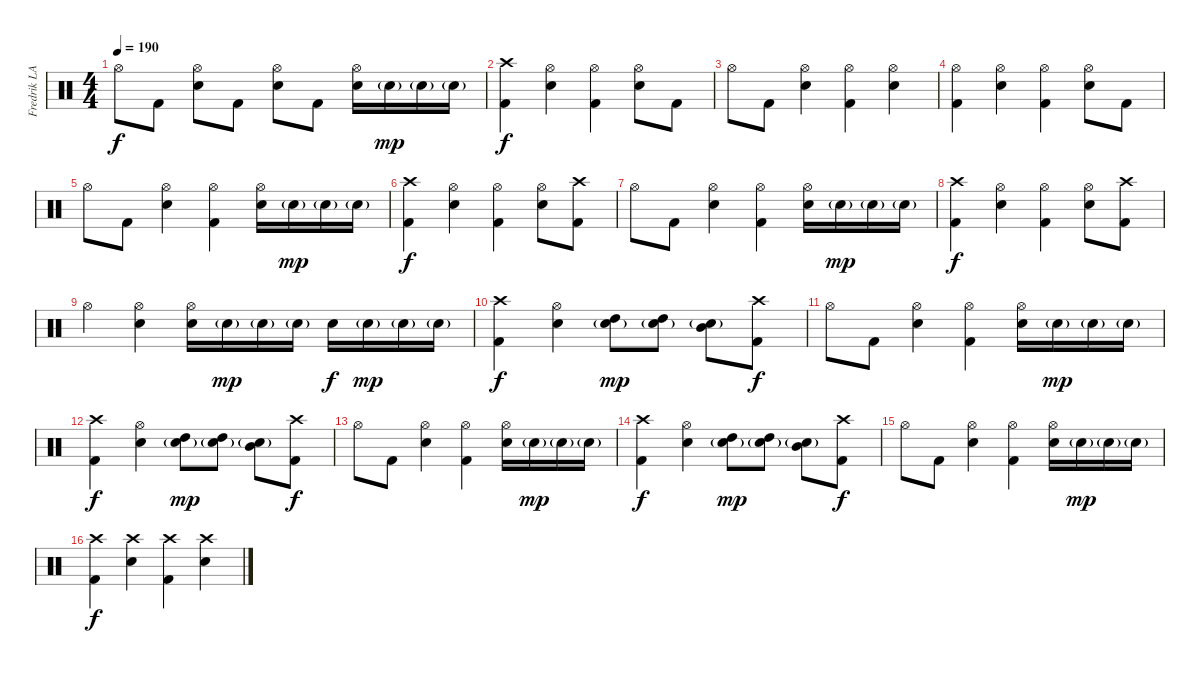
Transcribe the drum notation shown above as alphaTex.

\track ("Fredrik LARZON" "Fredrik LA") {instrument percussion}
\staff {score}
\articulation defaults
\ts (4 4)
\tempo 190
\clef neutral
\ks c "Hi-Hat (open)".8{dy f} "Kick (hit) 2".8
("Hi-Hat (open)" "Electric Snare (hit)").8 "Kick (hit) 2".8 ("Hi-Hat (open)" "Electric Snare (hit)").8 "Kick (hit) 2".8 ("Hi-Hat (open)" "Electric Snare (hit)").16 "Electric Snare (hit)"{g}.16{dy mp} "Electric Snare (hit)"{g}.16 "Electric Snare (hit)"{g}.16 |
("Crash high (hit)" "Kick (hit) 2").4{dy f} ("Hi-Hat (open)" "Electric Snare (hit)").4 ("Hi-Hat (open)" "Kick (hit) 2").4 ("Hi-Hat (open)" "Electric Snare (hit)").8 "Kick (hit) 2".8 |
"Hi-Hat (open)".8 "Kick (hit) 2".8 ("Hi-Hat (open)" "Electric Snare (hit)").4 ("Hi-Hat (open)" "Kick (hit) 2").4 ("Hi-Hat (open)" "Electric Snare (hit)").4 |
("Hi-Hat (open)" "Kick (hit) 2").4 ("Hi-Hat (open)" "Electric Snare (hit)").4 ("Hi-Hat (open)" "Kick (hit) 2").4 ("Hi-Hat (open)" "Electric Snare (hit)").8 "Kick (hit) 2".8 |
"Hi-Hat (open)".8 "Kick (hit) 2".8 ("Hi-Hat (open)" "Electric Snare (hit)").4 ("Hi-Hat (open)" "Kick (hit) 2").4 ("Hi-Hat (open)" "Electric Snare (hit)").16 "Electric Snare (hit)"{g}.16{dy mp} "Electric Snare (hit)"{g}.16 "Electric Snare (hit)"{g}.16 |
("Crash high (hit)" "Kick (hit) 2").4{dy f} ("Hi-Hat (open)" "Electric Snare (hit)").4 ("Hi-Hat (open)" "Kick (hit) 2").4 ("Hi-Hat (open)" "Electric Snare (hit)").8 ("Crash high (hit)" "Kick (hit) 2").8 |
"Hi-Hat (open)".8 "Kick (hit) 2".8 ("Hi-Hat (open)" "Electric Snare (hit)").4 ("Hi-Hat (open)" "Kick (hit) 2").4 ("Hi-Hat (open)" "Electric Snare (hit)").16 "Electric Snare (hit)"{g}.16{dy mp} "Electric Snare (hit)"{g}.16 "Electric Snare (hit)"{g}.16 |
("Crash high (hit)" "Kick (hit) 2").4{dy f} ("Hi-Hat (open)" "Electric Snare (hit)").4 ("Hi-Hat (open)" "Kick (hit) 2").4 ("Hi-Hat (open)" "Electric Snare (hit)").8 ("Crash high (hit)" "Kick (hit) 2").8 |
"Hi-Hat (open)".4 ("Hi-Hat (open)" "Electric Snare (hit)").4 ("Hi-Hat (open)" "Electric Snare (hit)").16 "Electric Snare (hit)"{g}.16{dy mp} "Electric Snare (hit)"{g}.16 "Electric Snare (hit)"{g}.16 "Electric Snare (hit)".16{dy f} "Electric Snare (hit)"{g}.16{dy mp} "Electric Snare (hit)"{g}.16 "Electric Snare (hit)"{g}.16 |
("Crash high (hit)" "Kick (hit) 2").4{dy f} ("Hi-Hat (open)" "Electric Snare (hit)").4 ("Electric Snare (hit)"{g} "High Tom (hit)").8{dy mp} ("Electric Snare (hit)"{g} "High Tom (hit)").8 ("Electric Snare (hit)"{g} "Mid Tom (hit)").8 ("Crash high (hit)" "Kick (hit) 2").8{dy f} |
"Hi-Hat (open)".8 "Kick (hit) 2".8 ("Hi-Hat (open)" "Electric Snare (hit)").4 ("Hi-Hat (open)" "Kick (hit) 2").4 ("Hi-Hat (open)" "Electric Snare (hit)").16 "Electric Snare (hit)"{g}.16{dy mp} "Electric Snare (hit)"{g}.16 "Electric Snare (hit)"{g}.16 |
("Crash high (hit)" "Kick (hit) 2").4{dy f} ("Hi-Hat (open)" "Electric Snare (hit)").4 ("Electric Snare (hit)"{g} "High Tom (hit)").8{dy mp} ("Electric Snare (hit)"{g} "High Tom (hit)").8 ("Electric Snare (hit)"{g} "Mid Tom (hit)").8 ("Crash high (hit)" "Kick (hit) 2").8{dy f} |
"Hi-Hat (open)".8 "Kick (hit) 2".8 ("Hi-Hat (open)" "Electric Snare (hit)").4 ("Hi-Hat (open)" "Kick (hit) 2").4 ("Hi-Hat (open)" "Electric Snare (hit)").16 "Electric Snare (hit)"{g}.16{dy mp} "Electric Snare (hit)"{g}.16 "Electric Snare (hit)"{g}.16 |
("Crash high (hit)" "Kick (hit) 2").4{dy f} ("Hi-Hat (open)" "Electric Snare (hit)").4 ("Electric Snare (hit)"{g} "High Tom (hit)").8{dy mp} ("Electric Snare (hit)"{g} "High Tom (hit)").8 ("Electric Snare (hit)"{g} "Mid Tom (hit)").8 ("Crash high (hit)" "Kick (hit) 2").8{dy f} |
"Hi-Hat (open)".8 "Kick (hit) 2".8 ("Hi-Hat (open)" "Electric Snare (hit)").4 ("Hi-Hat (open)" "Kick (hit) 2").4 ("Hi-Hat (open)" "Electric Snare (hit)").16 "Electric Snare (hit)"{g}.16{dy mp} "Electric Snare (hit)"{g}.16 "Electric Snare (hit)"{g}.16 |
("Crash high (hit)" "Kick (hit) 2").4{dy f} ("Crash high (hit)" "Electric Snare (hit)").4 ("Crash high (hit)" "Kick (hit) 2").4 ("Crash high (hit)" "Electric Snare (hit)").4
